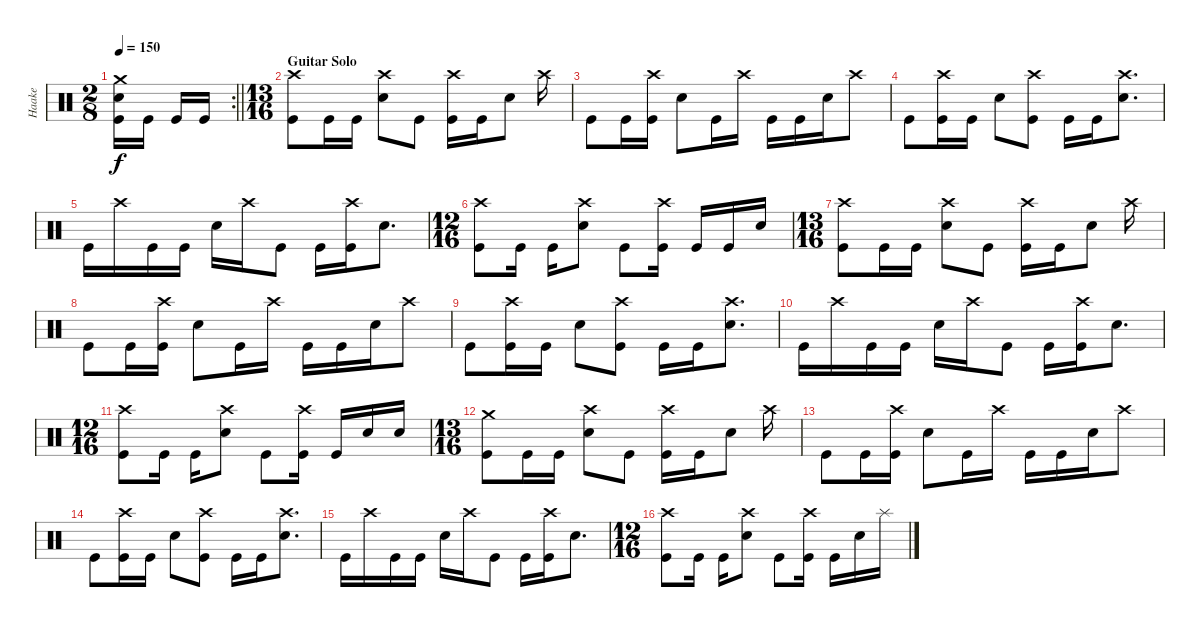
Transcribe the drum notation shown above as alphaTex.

\track ("Haake" "Haake") {instrument percussion}
\staff {score}
\articulation defaults
\rc 2
\ts (2 8)
\tempo 150
\clef neutral
\barLineRight lightlight
\ks c
("Crash medium (hit)" "Snare (hit) 2" "Kick (hit)").16{dy f} "Kick (hit)".16 "Kick (hit)".16 "Kick (hit)".16 |
\ts (13 16)
\section ("" "Guitar Solo")
("Crash high (hit)" "Kick (hit)").8 "Kick (hit)".16 "Kick (hit)".16 ("Crash high (hit)" "Snare (hit) 2").8 "Kick (hit)".8 ("Crash high (hit)" "Kick (hit)").16 "Kick (hit)".16 "Snare (hit) 2".8 "Crash high (hit)".16 |
"Kick (hit)".8 "Kick (hit)".16 ("Crash high (hit)" "Kick (hit)").16 "Snare (hit) 2".8 "Kick (hit)".16 "Crash high (hit)".16 "Kick (hit)".16 "Kick (hit)".16 "Snare (hit) 2".16 "Crash high (hit)".8 |
"Kick (hit)".8 ("Crash high (hit)" "Kick (hit)").16 "Kick (hit)".16 "Snare (hit) 2".8 ("Crash high (hit)" "Kick (hit)").8 "Kick (hit)".16 "Kick (hit)".16 ("Crash high (hit)" "Snare (hit) 2").8{d} |
"Kick (hit)".16 "Crash high (hit)".16 "Kick (hit)".16 "Kick (hit)".16 "Snare (hit) 2".16 "Crash high (hit)".16 "Kick (hit)".8 "Kick (hit)".16 ("Crash high (hit)" "Kick (hit)").16 "Snare (hit) 2".8{d} |
\ts (12 16)
("Crash high (hit)" "Kick (hit)").8 "Kick (hit)".16 "Kick (hit)".16 ("Crash high (hit)" "Snare (hit) 2").8 "Kick (hit)".8 ("Crash high (hit)" "Kick (hit)").16 "Kick (hit)".16 "Kick (hit)".16 "Snare (hit) 2".16 |
\ts (13 16)
("Crash high (hit)" "Kick (hit)").8 "Kick (hit)".16 "Kick (hit)".16 ("Crash high (hit)" "Snare (hit) 2").8 "Kick (hit)".8 ("Crash high (hit)" "Kick (hit)").16 "Kick (hit)".16 "Snare (hit) 2".8 "Crash high (hit)".16 |
"Kick (hit)".8 "Kick (hit)".16 ("Crash high (hit)" "Kick (hit)").16 "Snare (hit) 2".8 "Kick (hit)".16 "Crash high (hit)".16 "Kick (hit)".16 "Kick (hit)".16 "Snare (hit) 2".16 "Crash high (hit)".8 |
"Kick (hit)".8 ("Crash high (hit)" "Kick (hit)").16 "Kick (hit)".16 "Snare (hit) 2".8 ("Crash high (hit)" "Kick (hit)").8 "Kick (hit)".16 "Kick (hit)".16 ("Crash high (hit)" "Snare (hit) 2").8{d} |
"Kick (hit)".16 "Crash high (hit)".16 "Kick (hit)".16 "Kick (hit)".16 "Snare (hit) 2".16 "Crash high (hit)".16 "Kick (hit)".8 "Kick (hit)".16 ("Crash high (hit)" "Kick (hit)").16 "Snare (hit) 2".8{d} |
\ts (12 16)
("Crash high (hit)" "Kick (hit)").8 "Kick (hit)".16 "Kick (hit)".16 ("Crash high (hit)" "Snare (hit) 2").8 "Kick (hit)".8 ("Crash high (hit)" "Kick (hit)").16 "Kick (hit)".16 "Snare (hit) 2".16 "Snare (hit) 2".16 |
\ts (13 16)
("Crash medium (hit)" "Kick (hit)").8 "Kick (hit)".16 "Kick (hit)".16 ("Crash high (hit)" "Snare (hit) 2").8 "Kick (hit)".8 ("Crash high (hit)" "Kick (hit)").16 "Kick (hit)".16 "Snare (hit) 2".8 "Crash high (hit)".16 |
"Kick (hit)".8 "Kick (hit)".16 ("Crash high (hit)" "Kick (hit)").16 "Snare (hit) 2".8 "Kick (hit)".16 "Crash high (hit)".16 "Kick (hit)".16 "Kick (hit)".16 "Snare (hit) 2".16 "Crash high (hit)".8 |
"Kick (hit)".8 ("Crash high (hit)" "Kick (hit)").16 "Kick (hit)".16 "Snare (hit) 2".8 ("Crash high (hit)" "Kick (hit)").8 "Kick (hit)".16 "Kick (hit)".16 ("Crash high (hit)" "Snare (hit) 2").8{d} |
"Kick (hit)".16 "Crash high (hit)".16 "Kick (hit)".16 "Kick (hit)".16 "Snare (hit) 2".16 "Crash high (hit)".16 "Kick (hit)".8 "Kick (hit)".16 ("Crash high (hit)" "Kick (hit)").16 "Snare (hit) 2".8{d} |
\ts (12 16)
("Crash high (hit)" "Kick (hit)").8 "Kick (hit)".16 "Kick (hit)".16 ("Crash high (hit)" "Snare (hit) 2").8 "Kick (hit)".8 ("Crash high (hit)" "Kick (hit)").16 "Kick (hit)".16 "Snare (hit) 2".16 "Splash (hit)".16
